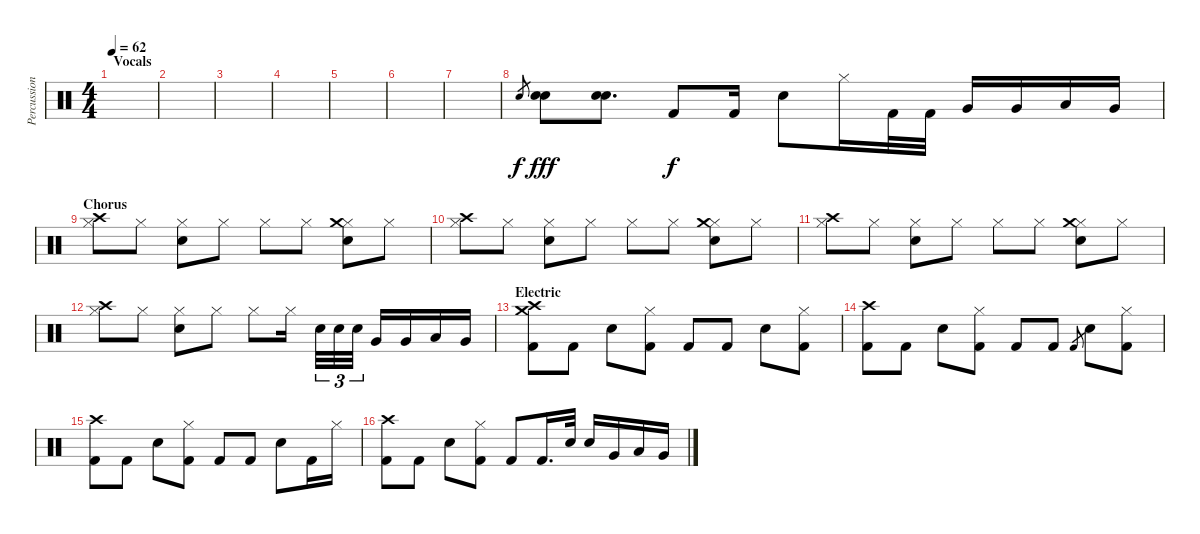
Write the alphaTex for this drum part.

\track ("Percussion" "Percussion") {instrument percussion}
\staff {score}
\articulation defaults
\ts (4 4)
\section ("" "Vocals")
\tempo 62
\clef neutral
\ks c
|
|
|
|
|
|
|
"Electric Snare (hit)".8{gr} ("Electric Snare (hit)" "Electric Snare (hit)").8{dy fff} ("Electric Snare (hit)" "Electric Snare (hit)").8{d} "Kick (hit) 2".8{dy f} "Kick (hit) 2".16 "Electric Snare (hit)".8 "Hi-Hat (closed)".16 "Kick (hit) 2".32 "Kick (hit) 2".32 "Very Low Tom (hit)".16 "Very Low Tom (hit)".16 "Low Floor Tom (hit)".16 "Very Low Tom (hit)".16 |
\section ("" "Chorus")
("Hi-Hat (closed)" "Crash high (hit)").8 "Hi-Hat (closed)".8 ("Hi-Hat (closed)" "Electric Snare (hit)").8 "Hi-Hat (closed)".8 "Hi-Hat (closed)".8 "Hi-Hat (closed)".8 ("Hi-Hat (closed)" "Crash medium (hit)" "Electric Snare (hit)").8 "Hi-Hat (closed)".8 |
("Hi-Hat (closed)" "Crash high (hit)").8 "Hi-Hat (closed)".8 ("Hi-Hat (closed)" "Electric Snare (hit)").8 "Hi-Hat (closed)".8 "Hi-Hat (closed)".8 "Hi-Hat (closed)".8 ("Hi-Hat (closed)" "Crash medium (hit)" "Electric Snare (hit)").8 "Hi-Hat (closed)".8 |
("Hi-Hat (closed)" "Crash high (hit)").8 "Hi-Hat (closed)".8 ("Hi-Hat (closed)" "Electric Snare (hit)").8 "Hi-Hat (closed)".8 "Hi-Hat (closed)".8 "Hi-Hat (closed)".8 ("Hi-Hat (closed)" "Crash medium (hit)" "Electric Snare (hit)").8 "Hi-Hat (closed)".8 |
("Hi-Hat (closed)" "Crash high (hit)").8 "Hi-Hat (closed)".8 ("Hi-Hat (closed)" "Electric Snare (hit)").8 "Hi-Hat (closed)".8 "Hi-Hat (closed)".8 "Hi-Hat (closed)".16 "Electric Snare (hit)".32{tu (3 2)} "Electric Snare (hit)".32{tu (3 2)} "Electric Snare (hit)".32{tu (3 2)} "Very Low Tom (hit)".16 "Very Low Tom (hit)".16 "Low Tom (hit)".16 "Very Low Tom (hit)".16 |
\section ("" "Electric")
("Crash high (hit)" "Crash medium (hit)" "Kick (hit) 2").8 "Kick (hit) 2".8 "Electric Snare (hit)".8 ("Hi-Hat (closed)" "Kick (hit) 2").8 "Kick (hit) 2".8 "Kick (hit) 2".8 "Electric Snare (hit)".8 ("Hi-Hat (closed)" "Kick (hit) 2").8 |
("Crash high (hit)" "Kick (hit) 2").8 "Kick (hit) 2".8 "Electric Snare (hit)".8 ("Hi-Hat (closed)" "Kick (hit) 2").8 "Kick (hit) 2".8 "Kick (hit) 2".8 "Kick (hit) 2".8{gr} "Electric Snare (hit)".8 ("Hi-Hat (closed)" "Kick (hit) 2").8 |
("Crash high (hit)" "Kick (hit) 2").8 "Kick (hit) 2".8 "Electric Snare (hit)".8 ("Hi-Hat (closed)" "Kick (hit) 2").8 "Kick (hit) 2".8 "Kick (hit) 2".8 "Electric Snare (hit)".8 "Kick (hit) 2".16 "Hi-Hat (closed)".16 |
("Crash high (hit)" "Kick (hit) 2").8 "Kick (hit) 2".8 "Electric Snare (hit)".8 ("Hi-Hat (closed)" "Kick (hit) 2").8 "Kick (hit) 2".8 "Kick (hit) 2".16{d} "Electric Snare (hit)".32 "Electric Snare (hit)".16 "Very Low Tom (hit)".16 "Low Tom (hit)".16 "Very Low Tom (hit)".16
